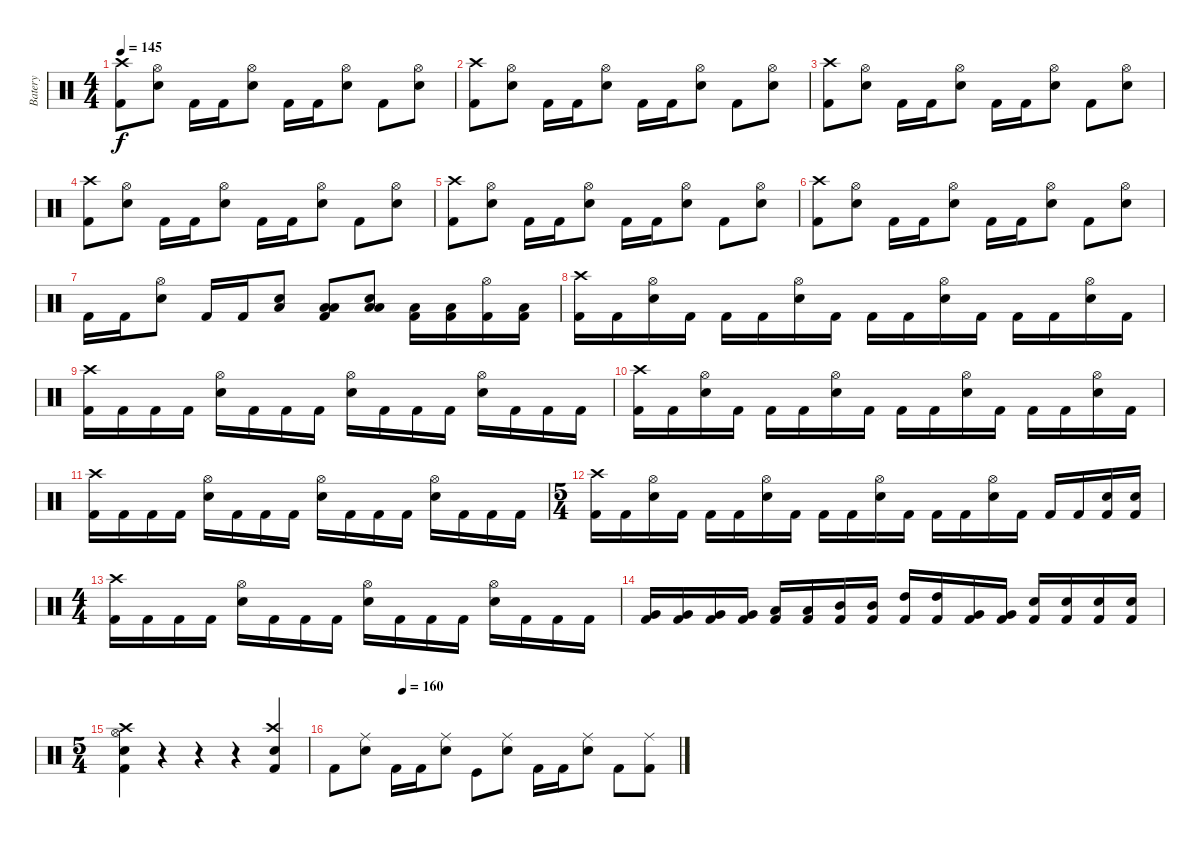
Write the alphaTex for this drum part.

\track ("Batery" "Batery") {instrument percussion}
\staff {score}
\articulation defaults
\ts (4 4)
\tempo 145
\clef neutral
\ks c
("Kick (hit) 2" "Crash high (hit)").8{dy f} ("Electric Snare (hit)" "Hi-Hat (open)").8 "Kick (hit) 2".16 "Kick (hit) 2".16 ("Electric Snare (hit)" "Hi-Hat (open)").8 "Kick (hit) 2".16 "Kick (hit) 2".16 ("Electric Snare (hit)" "Hi-Hat (open)").8 "Kick (hit) 2".8 ("Electric Snare (hit)" "Hi-Hat (open)").8 |
("Kick (hit) 2" "Crash high (hit)").8 ("Electric Snare (hit)" "Hi-Hat (open)").8 "Kick (hit) 2".16 "Kick (hit) 2".16 ("Electric Snare (hit)" "Hi-Hat (open)").8 "Kick (hit) 2".16 "Kick (hit) 2".16 ("Electric Snare (hit)" "Hi-Hat (open)").8 "Kick (hit) 2".8 ("Electric Snare (hit)" "Hi-Hat (open)").8 |
("Kick (hit) 2" "Crash high (hit)").8 ("Electric Snare (hit)" "Hi-Hat (open)").8 "Kick (hit) 2".16 "Kick (hit) 2".16 ("Electric Snare (hit)" "Hi-Hat (open)").8 "Kick (hit) 2".16 "Kick (hit) 2".16 ("Electric Snare (hit)" "Hi-Hat (open)").8 "Kick (hit) 2".8 ("Electric Snare (hit)" "Hi-Hat (open)").8 |
("Kick (hit) 2" "Crash high (hit)").8 ("Electric Snare (hit)" "Hi-Hat (open)").8 "Kick (hit) 2".16 "Kick (hit) 2".16 ("Electric Snare (hit)" "Hi-Hat (open)").8 "Kick (hit) 2".16 "Kick (hit) 2".16 ("Electric Snare (hit)" "Hi-Hat (open)").8 "Kick (hit) 2".8 ("Electric Snare (hit)" "Hi-Hat (open)").8 |
("Kick (hit) 2" "Crash high (hit)").8 ("Electric Snare (hit)" "Hi-Hat (open)").8 "Kick (hit) 2".16 "Kick (hit) 2".16 ("Electric Snare (hit)" "Hi-Hat (open)").8 "Kick (hit) 2".16 "Kick (hit) 2".16 ("Electric Snare (hit)" "Hi-Hat (open)").8 "Kick (hit) 2".8 ("Electric Snare (hit)" "Hi-Hat (open)").8 |
("Kick (hit) 2" "Crash high (hit)").8 ("Electric Snare (hit)" "Hi-Hat (open)").8 "Kick (hit) 2".16 "Kick (hit) 2".16 ("Electric Snare (hit)" "Hi-Hat (open)").8 "Kick (hit) 2".16 "Kick (hit) 2".16 ("Electric Snare (hit)" "Hi-Hat (open)").8 "Kick (hit) 2".8 ("Electric Snare (hit)" "Hi-Hat (open)").8 |
"Kick (hit) 2".16 "Kick (hit) 2".16 ("Electric Snare (hit)" "Hi-Hat (open)").8 "Kick (hit) 2".16 "Kick (hit) 2".16 ("Electric Snare (hit)" "Low Tom (hit)").8 ("Kick (hit) 2" "Low Tom (hit)" "Low Tom (hit)").8 ("Electric Snare (hit)" "Low Tom (hit)" "Low Tom (hit)").8 ("Kick (hit) 2" "Low Tom (hit)").16 ("Kick (hit) 2" "Low Tom (hit)").16 ("Kick (hit) 2" "Hi-Hat (open)").16 ("Kick (hit) 2" "Low Tom (hit)").16 |
("Kick (hit) 2" "Crash high (hit)").16 "Kick (hit) 2".16 ("Electric Snare (hit)" "Hi-Hat (open)").16 "Kick (hit) 2".16 "Kick (hit) 2".16 "Kick (hit) 2".16 ("Electric Snare (hit)" "Hi-Hat (open)").16 "Kick (hit) 2".16 "Kick (hit) 2".16 "Kick (hit) 2".16 ("Electric Snare (hit)" "Hi-Hat (open)").16 "Kick (hit) 2".16 "Kick (hit) 2".16 "Kick (hit) 2".16 ("Electric Snare (hit)" "Hi-Hat (open)").16 "Kick (hit) 2".16 |
("Kick (hit) 2" "Crash high (hit)").16 "Kick (hit) 2".16 "Kick (hit) 2".16 "Kick (hit) 2".16 ("Electric Snare (hit)" "Hi-Hat (open)").16 "Kick (hit) 2".16 "Kick (hit) 2".16 "Kick (hit) 2".16 ("Electric Snare (hit)" "Hi-Hat (open)").16 "Kick (hit) 2".16 "Kick (hit) 2".16 "Kick (hit) 2".16 ("Electric Snare (hit)" "Hi-Hat (open)").16 "Kick (hit) 2".16 "Kick (hit) 2".16 "Kick (hit) 2".16 |
("Kick (hit) 2" "Crash high (hit)").16 "Kick (hit) 2".16 ("Electric Snare (hit)" "Hi-Hat (open)").16 "Kick (hit) 2".16 "Kick (hit) 2".16 "Kick (hit) 2".16 ("Electric Snare (hit)" "Hi-Hat (open)").16 "Kick (hit) 2".16 "Kick (hit) 2".16 "Kick (hit) 2".16 ("Electric Snare (hit)" "Hi-Hat (open)").16 "Kick (hit) 2".16 "Kick (hit) 2".16 "Kick (hit) 2".16 ("Electric Snare (hit)" "Hi-Hat (open)").16 "Kick (hit) 2".16 |
("Kick (hit) 2" "Crash high (hit)").16 "Kick (hit) 2".16 "Kick (hit) 2".16 "Kick (hit) 2".16 ("Electric Snare (hit)" "Hi-Hat (open)").16 "Kick (hit) 2".16 "Kick (hit) 2".16 "Kick (hit) 2".16 ("Electric Snare (hit)" "Hi-Hat (open)").16 "Kick (hit) 2".16 "Kick (hit) 2".16 "Kick (hit) 2".16 ("Electric Snare (hit)" "Hi-Hat (open)").16 "Kick (hit) 2".16 "Kick (hit) 2".16 "Kick (hit) 2".16 |
\ts (5 4)
("Kick (hit) 2" "Crash high (hit)").16 "Kick (hit) 2".16 ("Electric Snare (hit)" "Hi-Hat (open)").16 "Kick (hit) 2".16 "Kick (hit) 2".16 "Kick (hit) 2".16 ("Electric Snare (hit)" "Hi-Hat (open)").16 "Kick (hit) 2".16 "Kick (hit) 2".16 "Kick (hit) 2".16 ("Electric Snare (hit)" "Hi-Hat (open)").16 "Kick (hit) 2".16 "Kick (hit) 2".16 "Kick (hit) 2".16 ("Electric Snare (hit)" "Hi-Hat (open)").16 "Kick (hit) 2".16 "Kick (hit) 2".16 "Kick (hit) 2".16 ("Kick (hit) 2" "Electric Snare (hit)").16 ("Kick (hit) 2" "Electric Snare (hit)").16 |
\ts (4 4)
("Kick (hit) 2" "Crash high (hit)").16 "Kick (hit) 2".16 "Kick (hit) 2".16 "Kick (hit) 2".16 ("Electric Snare (hit)" "Hi-Hat (open)").16 "Kick (hit) 2".16 "Kick (hit) 2".16 "Kick (hit) 2".16 ("Electric Snare (hit)" "Hi-Hat (open)").16 "Kick (hit) 2".16 "Kick (hit) 2".16 "Kick (hit) 2".16 ("Electric Snare (hit)" "Hi-Hat (open)").16 "Kick (hit) 2".16 "Kick (hit) 2".16 "Kick (hit) 2".16 |
("Kick (hit) 2" "Very Low Tom (hit)").16 ("Kick (hit) 2" "Very Low Tom (hit)").16 ("Kick (hit) 2" "Very Low Tom (hit)").16 ("Kick (hit) 2" "Very Low Tom (hit)").16 ("Kick (hit) 2" "Low Tom (hit)").16 ("Kick (hit) 2" "Low Tom (hit)").16 ("Kick (hit) 2" "Mid Tom (hit)").16 ("Kick (hit) 2" "Mid Tom (hit)").16 ("Kick (hit) 2" "High Tom (hit)").16 ("Kick (hit) 2" "High Tom (hit)").16 ("Kick (hit) 2" "Very Low Tom (hit)").16 ("Kick (hit) 2" "Very Low Tom (hit)").16 ("Kick (hit) 2" "Electric Snare (hit)").16 ("Kick (hit) 2" "Electric Snare (hit)").16 ("Kick (hit) 2" "Electric Snare (hit)").16 ("Kick (hit) 2" "Electric Snare (hit)").16 |
\ts (5 4)
("Kick (hit) 2" "Electric Snare (hit)" "Hi-Hat (open)" "Crash high (hit)").4 r.4 r.4 r.4 ("Kick (hit) 2" "Electric Snare (hit)" "Crash high (hit)").4 |
\tempo (160 0.2)
"Kick (hit) 2".8 ("Electric Snare (hit)" "Ride (middle)").8 "Kick (hit) 2".16 "Kick (hit) 2".16 ("Electric Snare (hit)" "Ride (middle)").8 "Kick (hit)".8 ("Electric Snare (hit)" "Ride (middle)").8 "Kick (hit) 2".16 "Kick (hit) 2".16 ("Electric Snare (hit)" "Ride (middle)").8 "Kick (hit) 2".8 ("Kick (hit) 2" "Ride (middle)").8
